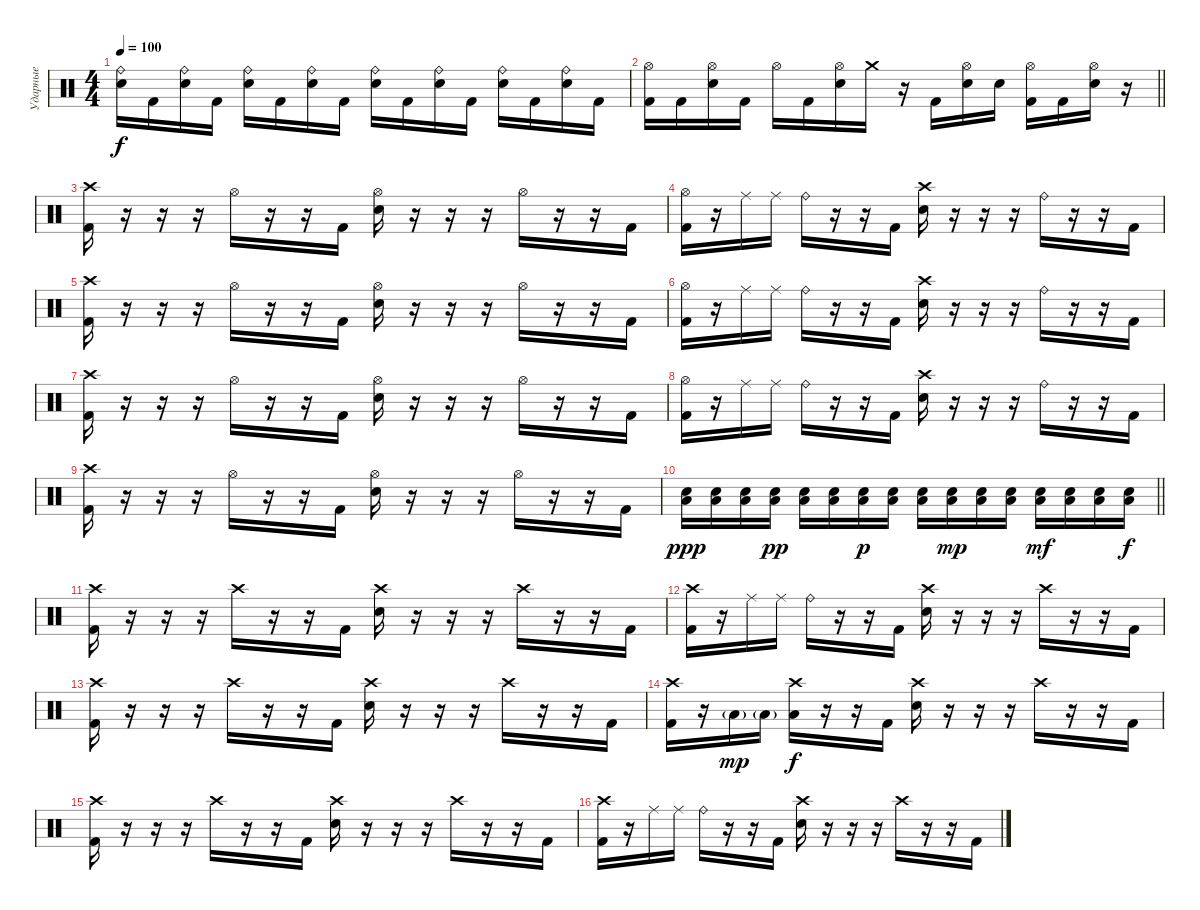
\track ("Ударные" "Ударные") {instrument percussion}
\staff {score}
\articulation defaults
\ts (4 4)
\tempo 100
\clef neutral
\ks c
("Ride (bell)" "Electric Snare (hit)").16{dy f} "Kick (hit) 2".16 ("Ride (bell)" "Electric Snare (hit)").16 "Kick (hit) 2".16 ("Ride (bell)" "Electric Snare (hit)").16 "Kick (hit) 2".16 ("Ride (bell)" "Electric Snare (hit)").16 "Kick (hit) 2".16 ("Ride (bell)" "Electric Snare (hit)").16 "Kick (hit) 2".16 ("Ride (bell)" "Electric Snare (hit)").16 "Kick (hit) 2".16 ("Ride (bell)" "Electric Snare (hit)").16 "Kick (hit) 2".16 ("Ride (bell)" "Electric Snare (hit)").16 "Kick (hit) 2".16 |
\barLineRight lightlight
("Hi-Hat (open)" "Kick (hit) 2").16 "Kick (hit) 2".16 ("Hi-Hat (open)" "Electric Snare (hit)").16 "Kick (hit) 2".16 "Hi-Hat (open)".16 "Kick (hit) 2".16 ("Hi-Hat (open)" "Electric Snare (hit)").16 "Crash medium (hit)".16 r.16 "Kick (hit) 2".16 ("Hi-Hat (open)" "Electric Snare (hit)").16 "Electric Snare (hit)".16 ("Hi-Hat (open)" "Kick (hit) 2").16 "Kick (hit) 2".16 ("Hi-Hat (open)" "Electric Snare (hit)").16 r.16 |
\section ("" "")
("Crash high (hit)" "Kick (hit) 2").16 r.16 r.16 r.16 "Hi-Hat (open)".16 r.16 r.16 "Kick (hit) 2".16 ("Hi-Hat (open)" "Electric Snare (hit)").16 r.16 r.16 r.16 "Hi-Hat (open)".16 r.16 r.16 "Kick (hit) 2".16 |
("Hi-Hat (open)" "Kick (hit) 2").16 r.16 "Ride (middle)".16 "Ride (middle)".16 "Ride (bell)".16 r.16 r.16 "Kick (hit) 2".16 ("Crash high (hit)" "Electric Snare (hit)").16 r.16 r.16 r.16 "Ride (bell)".16 r.16 r.16 "Kick (hit) 2".16 |
("Crash high (hit)" "Kick (hit) 2").16 r.16 r.16 r.16 "Hi-Hat (open)".16 r.16 r.16 "Kick (hit) 2".16 ("Hi-Hat (open)" "Electric Snare (hit)").16 r.16 r.16 r.16 "Hi-Hat (open)".16 r.16 r.16 "Kick (hit) 2".16 |
("Hi-Hat (open)" "Kick (hit) 2").16 r.16 "Ride (middle)".16 "Ride (middle)".16 "Ride (bell)".16 r.16 r.16 "Kick (hit) 2".16 ("Crash high (hit)" "Electric Snare (hit)").16 r.16 r.16 r.16 "Ride (bell)".16 r.16 r.16 "Kick (hit) 2".16 |
("Crash high (hit)" "Kick (hit) 2").16 r.16 r.16 r.16 "Hi-Hat (open)".16 r.16 r.16 "Kick (hit) 2".16 ("Hi-Hat (open)" "Electric Snare (hit)").16 r.16 r.16 r.16 "Hi-Hat (open)".16 r.16 r.16 "Kick (hit) 2".16 |
("Hi-Hat (open)" "Kick (hit) 2").16 r.16 "Ride (middle)".16 "Ride (middle)".16 "Ride (bell)".16 r.16 r.16 "Kick (hit) 2".16 ("Crash high (hit)" "Electric Snare (hit)").16 r.16 r.16 r.16 "Ride (bell)".16 r.16 r.16 "Kick (hit) 2".16 |
("Crash high (hit)" "Kick (hit) 2").16 r.16 r.16 r.16 "Hi-Hat (open)".16 r.16 r.16 "Kick (hit) 2".16 ("Hi-Hat (open)" "Electric Snare (hit)").16 r.16 r.16 r.16 "Hi-Hat (open)".16 r.16 r.16 "Kick (hit) 2".16 |
\barLineRight lightlight
("Low Floor Tom (hit)" "Electric Snare (hit)").16{dy ppp} ("Low Floor Tom (hit)" "Electric Snare (hit)").16 ("Low Floor Tom (hit)" "Electric Snare (hit)").16 ("Low Floor Tom (hit)" "Electric Snare (hit)").16{dy pp} ("Low Floor Tom (hit)" "Electric Snare (hit)").16 ("Low Floor Tom (hit)" "Electric Snare (hit)").16 ("Low Floor Tom (hit)" "Electric Snare (hit)").16{dy p} ("Low Floor Tom (hit)" "Electric Snare (hit)").16 ("Low Floor Tom (hit)" "Electric Snare (hit)").16 ("Low Floor Tom (hit)" "Electric Snare (hit)").16{dy mp} ("Low Floor Tom (hit)" "Electric Snare (hit)").16 ("Low Floor Tom (hit)" "Electric Snare (hit)").16 ("Low Floor Tom (hit)" "Electric Snare (hit)").16{dy mf} ("Low Floor Tom (hit)" "Electric Snare (hit)").16 ("Low Floor Tom (hit)" "Electric Snare (hit)").16 ("Low Floor Tom (hit)" "Electric Snare (hit)").16{dy f} |
\section ("" "")
("Crash high (hit)" "Kick (hit) 2").16 r.16 r.16 r.16 "Crash high (hit)".16 r.16 r.16 "Kick (hit) 2".16 ("Crash high (hit)" "Electric Snare (hit)").16 r.16 r.16 r.16 "Crash high (hit)".16 r.16 r.16 "Kick (hit) 2".16 |
("Crash high (hit)" "Kick (hit) 2").16 r.16 "Ride (middle)".16 "Ride (middle)".16 "Ride (bell)".16 r.16 r.16 "Kick (hit) 2".16 ("Crash high (hit)" "Electric Snare (hit)").16 r.16 r.16 r.16 "Crash high (hit)".16 r.16 r.16 "Kick (hit) 2".16 |
("Crash high (hit)" "Kick (hit) 2").16 r.16 r.16 r.16 "Crash high (hit)".16 r.16 r.16 "Kick (hit) 2".16 ("Crash high (hit)" "Electric Snare (hit)").16 r.16 r.16 r.16 "Crash high (hit)".16 r.16 r.16 "Kick (hit) 2".16 |
("Crash high (hit)" "Kick (hit) 2").16 r.16 "Low Tom (hit)"{g}.16{dy mp} "Low Tom (hit)"{g}.16 ("Crash high (hit)" "Low Floor Tom (hit)").16{dy f} r.16 r.16 "Kick (hit) 2".16 ("Crash high (hit)" "Electric Snare (hit)").16 r.16 r.16 r.16 "Crash high (hit)".16 r.16 r.16 "Kick (hit) 2".16 |
("Crash high (hit)" "Kick (hit) 2").16 r.16 r.16 r.16 "Crash high (hit)".16 r.16 r.16 "Kick (hit) 2".16 ("Crash high (hit)" "Electric Snare (hit)").16 r.16 r.16 r.16 "Crash high (hit)".16 r.16 r.16 "Kick (hit) 2".16 |
("Crash high (hit)" "Kick (hit) 2").16 r.16 "Ride (middle)".16 "Ride (middle)".16 "Ride (bell)".16 r.16 r.16 "Kick (hit) 2".16 ("Crash high (hit)" "Electric Snare (hit)").16 r.16 r.16 r.16 "Crash high (hit)".16 r.16 r.16 "Kick (hit) 2".16
